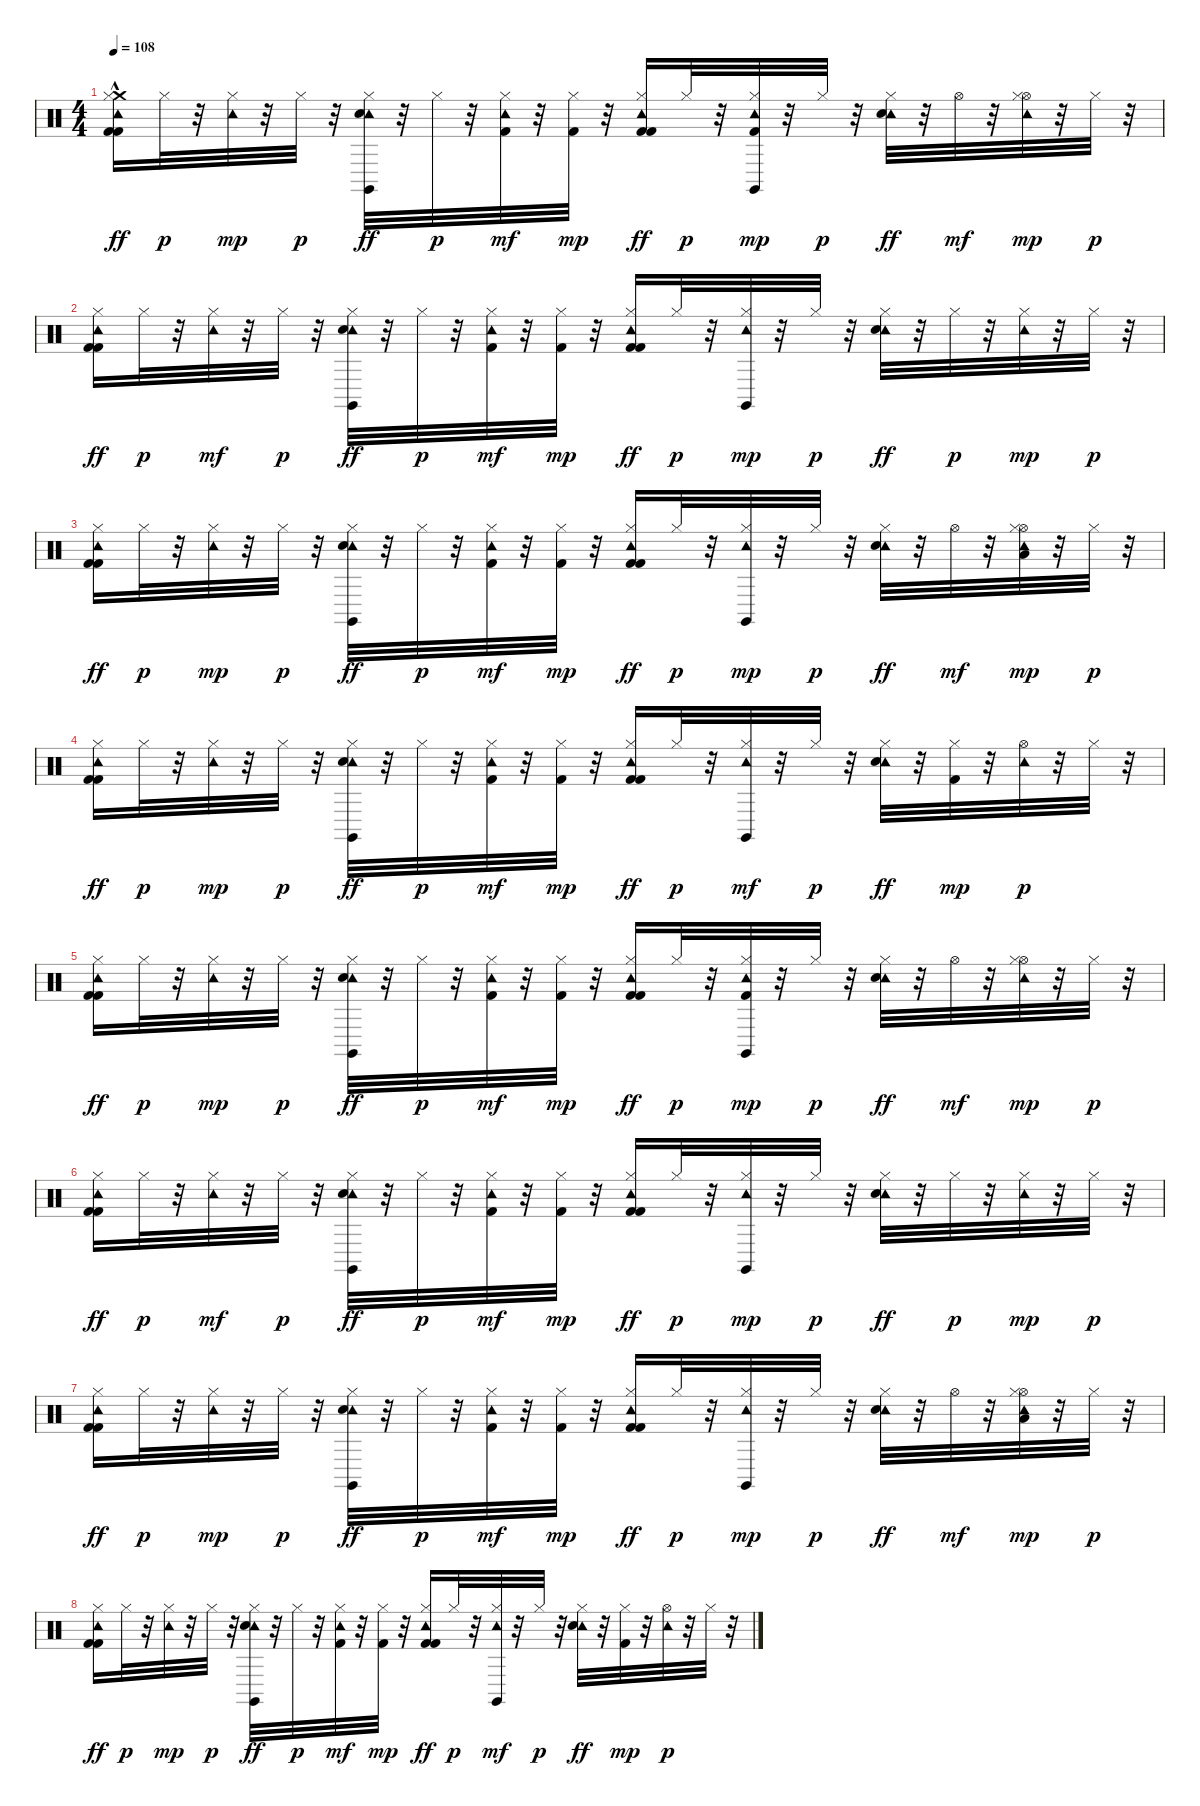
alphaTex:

\track "" {instrument percussion}
\staff {score}
\articulation defaults
\ts (4 4)
\tempo 108
\clef neutral
\ks c
("Crash medium (hit)"{hac} "Tambourine (hit)" "Kick (hit) 2" "Hi-Hat (closed)" "Kick (hit) 2").16{dy ff} "Hi-Hat (closed)".32{dy p} r.32 ("Hi-Hat (closed)" "Tambourine (hit)").32{dy mp} r.32 "Hi-Hat (closed)".32{dy p} r.32 ("Tambourine (hit)" "Claves (hit)" "Hi-Hat (closed)" "Snare (hit) 2").32{dy ff} r.32 "Hi-Hat (closed)".32{dy p} r.32 ("Tambourine (hit)" "Kick (hit) 2" "Hi-Hat (closed)").32{dy mf} r.32 ("Hi-Hat (closed)" "Kick (hit) 2").32{dy mp} r.32 ("Kick (hit) 2" "Tambourine (hit)" "Hi-Hat (closed)" "Kick (hit) 2").16{dy ff} "Hi-Hat (closed)".32{dy p} r.32 ("Tambourine (hit)" "Kick (hit) 2" "Claves (hit)" "Hi-Hat (closed)").32{dy mp} r.32 "Hi-Hat (closed)".32{dy p} r.32 ("Tambourine (hit)" "Hi-Hat (closed)" "Snare (hit) 2").32{dy ff} r.32 "Hi-Hat (open)".32{dy mf} r.32 ("Tambourine (hit)" "Hi-Hat (open)" "Hi-Hat (closed)").32{dy mp} r.32 "Hi-Hat (closed)".32{dy p} r.32 |
("Tambourine (hit)" "Kick (hit) 2" "Hi-Hat (closed)" "Kick (hit) 2").16{dy ff} "Hi-Hat (closed)".32{dy p} r.32 ("Tambourine (hit)" "Hi-Hat (closed)").32{dy mf} r.32 "Hi-Hat (closed)".32{dy p} r.32 ("Tambourine (hit)" "Claves (hit)" "Hi-Hat (closed)" "Snare (hit) 2").32{dy ff} r.32 "Hi-Hat (closed)".32{dy p} r.32 ("Tambourine (hit)" "Kick (hit) 2" "Hi-Hat (closed)").32{dy mf} r.32 ("Hi-Hat (closed)" "Kick (hit) 2").32{dy mp} r.32 ("Tambourine (hit)" "Kick (hit) 2" "Hi-Hat (closed)" "Kick (hit) 2").16{dy ff} "Hi-Hat (closed)".32{dy p} r.32 ("Tambourine (hit)" "Claves (hit)" "Hi-Hat (closed)").32{dy mp} r.32 "Hi-Hat (closed)".32{dy p} r.32 ("Tambourine (hit)" "Hi-Hat (closed)" "Snare (hit) 2").32{dy ff} r.32 "Hi-Hat (closed)".32{dy p} r.32 ("Tambourine (hit)" "Hi-Hat (closed)").32{dy mp} r.32 "Hi-Hat (closed)".32{dy p} r.32 |
("Kick (hit) 2" "Tambourine (hit)" "Hi-Hat (closed)" "Kick (hit) 2").16{dy ff} "Hi-Hat (closed)".32{dy p} r.32 ("Hi-Hat (closed)" "Tambourine (hit)").32{dy mp} r.32 "Hi-Hat (closed)".32{dy p} r.32 ("Tambourine (hit)" "Claves (hit)" "Hi-Hat (closed)" "Snare (hit) 2").32{dy ff} r.32 "Hi-Hat (closed)".32{dy p} r.32 ("Kick (hit) 2" "Tambourine (hit)" "Hi-Hat (closed)").32{dy mf} r.32 ("Hi-Hat (closed)" "Kick (hit) 2").32{dy mp} r.32 ("Tambourine (hit)" "Kick (hit) 2" "Hi-Hat (closed)" "Kick (hit) 2").16{dy ff} "Hi-Hat (closed)".32{dy p} r.32 ("Tambourine (hit)" "Claves (hit)" "Hi-Hat (closed)").32{dy mp} r.32 "Hi-Hat (closed)".32{dy p} r.32 ("Tambourine (hit)" "Hi-Hat (closed)" "Snare (hit) 2").32{dy ff} r.32 "Hi-Hat (open)".32{dy mf} r.32 ("Tambourine (hit)" "Hi-Hat (open)" "Low Tom (hit)" "Hi-Hat (closed)").32{dy mp} r.32 "Hi-Hat (closed)".32{dy p} r.32 |
("Kick (hit) 2" "Tambourine (hit)" "Hi-Hat (closed)" "Kick (hit) 2").16{dy ff} "Hi-Hat (closed)".32{dy p} r.32 ("Tambourine (hit)" "Hi-Hat (closed)").32{dy mp} r.32 "Hi-Hat (closed)".32{dy p} r.32 ("Tambourine (hit)" "Claves (hit)" "Hi-Hat (closed)" "Snare (hit) 2").32{dy ff} r.32 "Hi-Hat (closed)".32{dy p} r.32 ("Tambourine (hit)" "Kick (hit) 2" "Hi-Hat (closed)").32{dy mf} r.32 ("Hi-Hat (closed)" "Kick (hit) 2").32{dy mp} r.32 ("Kick (hit) 2" "Tambourine (hit)" "Hi-Hat (closed)" "Kick (hit) 2").16{dy ff} "Hi-Hat (closed)".32{dy p} r.32 ("Tambourine (hit)" "Claves (hit)" "Hi-Hat (closed)").32{dy mf} r.32 "Hi-Hat (closed)".32{dy p} r.32 ("Tambourine (hit)" "Hi-Hat (closed)" "Snare (hit) 2").32{dy ff} r.32 ("Hi-Hat (closed)" "Kick (hit) 2").32{dy mp} r.32 ("Tambourine (hit)" "Hi-Hat (open)").32{dy p} r.32 "Hi-Hat (closed)".32 r.32 |
("Tambourine (hit)" "Kick (hit) 2" "Hi-Hat (closed)" "Kick (hit) 2").16{dy ff} "Hi-Hat (closed)".32{dy p} r.32 ("Hi-Hat (closed)" "Tambourine (hit)").32{dy mp} r.32 "Hi-Hat (closed)".32{dy p} r.32 ("Tambourine (hit)" "Claves (hit)" "Hi-Hat (closed)" "Snare (hit) 2").32{dy ff} r.32 "Hi-Hat (closed)".32{dy p} r.32 ("Kick (hit) 2" "Tambourine (hit)" "Hi-Hat (closed)").32{dy mf} r.32 ("Hi-Hat (closed)" "Kick (hit) 2").32{dy mp} r.32 ("Kick (hit) 2" "Tambourine (hit)" "Hi-Hat (closed)" "Kick (hit) 2").16{dy ff} "Hi-Hat (closed)".32{dy p} r.32 ("Tambourine (hit)" "Claves (hit)" "Kick (hit) 2" "Hi-Hat (closed)").32{dy mp} r.32 "Hi-Hat (closed)".32{dy p} r.32 ("Tambourine (hit)" "Hi-Hat (closed)" "Snare (hit) 2").32{dy ff} r.32 "Hi-Hat (open)".32{dy mf} r.32 ("Tambourine (hit)" "Hi-Hat (open)" "Hi-Hat (closed)").32{dy mp} r.32 "Hi-Hat (closed)".32{dy p} r.32 |
("Tambourine (hit)" "Kick (hit) 2" "Hi-Hat (closed)" "Kick (hit) 2").16{dy ff} "Hi-Hat (closed)".32{dy p} r.32 ("Tambourine (hit)" "Hi-Hat (closed)").32{dy mf} r.32 "Hi-Hat (closed)".32{dy p} r.32 ("Tambourine (hit)" "Claves (hit)" "Hi-Hat (closed)" "Snare (hit) 2").32{dy ff} r.32 "Hi-Hat (closed)".32{dy p} r.32 ("Kick (hit) 2" "Tambourine (hit)" "Hi-Hat (closed)").32{dy mf} r.32 ("Hi-Hat (closed)" "Kick (hit) 2").32{dy mp} r.32 ("Kick (hit) 2" "Tambourine (hit)" "Hi-Hat (closed)" "Kick (hit) 2").16{dy ff} "Hi-Hat (closed)".32{dy p} r.32 ("Tambourine (hit)" "Claves (hit)" "Hi-Hat (closed)").32{dy mp} r.32 "Hi-Hat (closed)".32{dy p} r.32 ("Tambourine (hit)" "Hi-Hat (closed)" "Snare (hit) 2").32{dy ff} r.32 "Hi-Hat (closed)".32{dy p} r.32 ("Tambourine (hit)" "Hi-Hat (closed)").32{dy mp} r.32 "Hi-Hat (closed)".32{dy p} r.32 |
("Kick (hit) 2" "Tambourine (hit)" "Hi-Hat (closed)" "Kick (hit) 2").16{dy ff} "Hi-Hat (closed)".32{dy p} r.32 ("Hi-Hat (closed)" "Tambourine (hit)").32{dy mp} r.32 "Hi-Hat (closed)".32{dy p} r.32 ("Tambourine (hit)" "Claves (hit)" "Hi-Hat (closed)" "Snare (hit) 2").32{dy ff} r.32 "Hi-Hat (closed)".32{dy p} r.32 ("Kick (hit) 2" "Tambourine (hit)" "Hi-Hat (closed)").32{dy mf} r.32 ("Hi-Hat (closed)" "Kick (hit) 2").32{dy mp} r.32 ("Kick (hit) 2" "Tambourine (hit)" "Hi-Hat (closed)" "Kick (hit) 2").16{dy ff} "Hi-Hat (closed)".32{dy p} r.32 ("Tambourine (hit)" "Claves (hit)" "Hi-Hat (closed)").32{dy mp} r.32 "Hi-Hat (closed)".32{dy p} r.32 ("Tambourine (hit)" "Hi-Hat (closed)" "Snare (hit) 2").32{dy ff} r.32 "Hi-Hat (open)".32{dy mf} r.32 ("Tambourine (hit)" "Hi-Hat (open)" "Low Tom (hit)" "Hi-Hat (closed)").32{dy mp} r.32 "Hi-Hat (closed)".32{dy p} r.32 |
("Kick (hit) 2" "Tambourine (hit)" "Hi-Hat (closed)" "Kick (hit) 2").16{dy ff} "Hi-Hat (closed)".32{dy p} r.32 ("Tambourine (hit)" "Hi-Hat (closed)").32{dy mp} r.32 "Hi-Hat (closed)".32{dy p} r.32 ("Tambourine (hit)" "Claves (hit)" "Hi-Hat (closed)" "Snare (hit) 2").32{dy ff} r.32 "Hi-Hat (closed)".32{dy p} r.32 ("Kick (hit) 2" "Tambourine (hit)" "Hi-Hat (closed)").32{dy mf} r.32 ("Hi-Hat (closed)" "Kick (hit) 2").32{dy mp} r.32 ("Kick (hit) 2" "Tambourine (hit)" "Hi-Hat (closed)" "Kick (hit) 2").16{dy ff} "Hi-Hat (closed)".32{dy p} r.32 ("Tambourine (hit)" "Claves (hit)" "Hi-Hat (closed)").32{dy mf} r.32 "Hi-Hat (closed)".32{dy p} r.32 ("Tambourine (hit)" "Hi-Hat (closed)" "Snare (hit) 2").32{dy ff} r.32 ("Hi-Hat (closed)" "Kick (hit) 2").32{dy mp} r.32 ("Tambourine (hit)" "Hi-Hat (open)").32{dy p} r.32 "Hi-Hat (closed)".32 r.32
